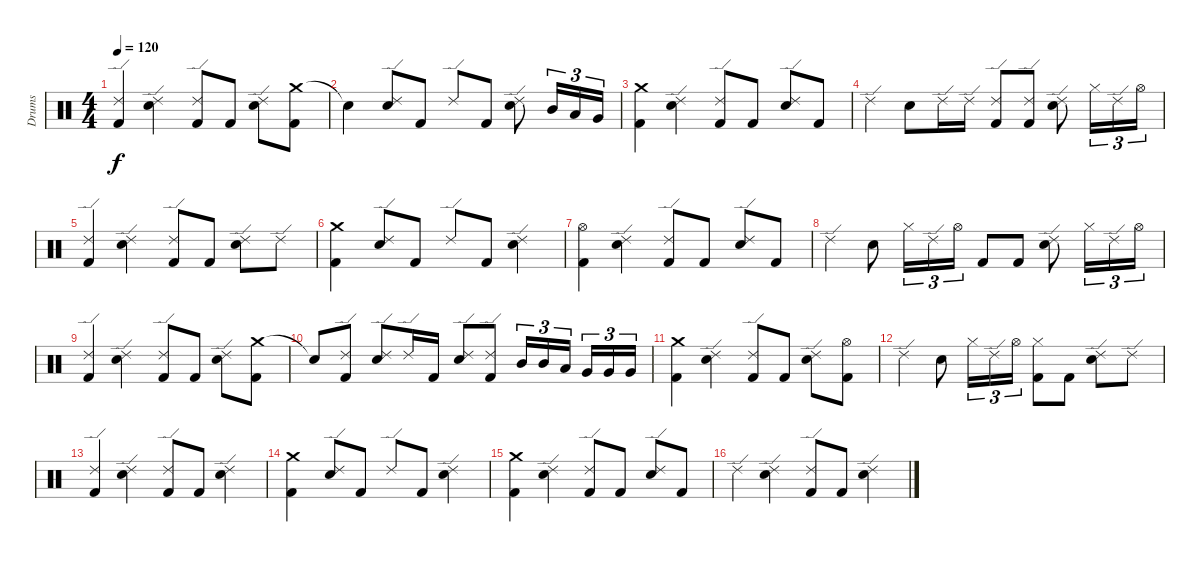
\track ("Drums" "Drums") {instrument percussion}
\staff {score}
\articulation defaults
\ts (4 4)
\tempo 120
\clef neutral
\ks c
("Ride (edge) 2" "Kick (hit) 2").4{dy f} ("Ride (edge) 2" "Snare (hit) 2").4 ("Ride (edge) 2" "Kick (hit) 2").8 "Kick (hit) 2".8 ("Ride (edge) 2" "Snare (hit) 2").8 ("Crash medium (hit)" "Kick (hit) 2").8 |
"Snare (hit)"{t}.4 ("Ride (edge) 2" "Snare (hit) 2").8 "Kick (hit) 2".8 "Ride (edge) 2".8 "Kick (hit) 2".8 ("Ride (edge) 2" "Snare (hit) 2").8 "Mid Tom (hit)".16{tu (3 2)} "Low Tom (hit)".16{tu (3 2)} "Very Low Tom (hit)".16{tu (3 2)} |
("Crash medium (hit)" "Kick (hit) 2").4 ("Ride (edge) 2" "Snare (hit) 2").4 ("Ride (edge) 2" "Kick (hit) 2").8 "Kick (hit) 2".8 ("Ride (edge) 2" "Snare (hit) 2").8 "Kick (hit) 2".8 |
"Ride (edge) 2".4 "Snare (hit) 2".8 "Ride (edge) 2".16 "Ride (edge) 2".16 ("Ride (edge) 2" "Kick (hit) 2").8 ("Ride (edge) 2" "Kick (hit) 2").8 ("Ride (edge) 2" "Snare (hit) 2").8 "Hi-Hat (closed)".16{tu (3 2)} "Ride (edge) 2".16{tu (3 2)} "Hi-Hat (open)".16{tu (3 2)} |
("Ride (edge) 2" "Kick (hit) 2").4 ("Ride (edge) 2" "Snare (hit) 2").4 ("Ride (edge) 2" "Kick (hit) 2").8 "Kick (hit) 2".8 ("Ride (edge) 2" "Snare (hit) 2").8 "Ride (edge) 2".8 |
("Crash medium (hit)" "Kick (hit) 2").4 ("Ride (edge) 2" "Snare (hit) 2").8 "Kick (hit) 2".8 "Ride (edge) 2".8 "Kick (hit) 2".8 ("Ride (edge) 2" "Snare (hit) 2").4 |
("Hi-Hat (open)" "Kick (hit) 2").4 ("Ride (edge) 2" "Snare (hit) 2").4 ("Ride (edge) 2" "Kick (hit) 2").8 "Kick (hit) 2".8 ("Ride (edge) 2" "Snare (hit) 2").8 "Kick (hit) 2".8 |
"Ride (edge) 2".4 "Snare (hit) 2".8 "Hi-Hat (closed)".16{tu (3 2)} "Ride (edge) 2".16{tu (3 2)} "Hi-Hat (open)".16{tu (3 2)} "Kick (hit) 2".8 "Kick (hit) 2".8 ("Ride (edge) 2" "Snare (hit) 2").8 "Hi-Hat (closed)".16{tu (3 2)} "Ride (edge) 2".16{tu (3 2)} "Hi-Hat (open)".16{tu (3 2)} |
("Ride (edge) 2" "Kick (hit) 2").4 ("Ride (edge) 2" "Snare (hit) 2").4 ("Ride (edge) 2" "Kick (hit) 2").8 "Kick (hit) 2".8 ("Ride (edge) 2" "Snare (hit) 2").8 ("Crash medium (hit)" "Kick (hit) 2").8 |
"Snare (hit)"{t}.8 ("Ride (edge) 2" "Kick (hit) 2").8 ("Ride (edge) 2" "Snare (hit) 2").8 "Ride (edge) 2".16 "Kick (hit) 2".16 ("Ride (edge) 2" "Snare (hit) 2").8 ("Ride (edge) 2" "Kick (hit) 2").8 "Mid Tom (hit)".16{tu (3 2)} "Mid Tom (hit)".16{tu (3 2)} "Low Tom (hit)".16{tu (3 2)} "Very Low Tom (hit)".16{tu (3 2)} "Very Low Tom (hit)".16{tu (3 2)} "Very Low Tom (hit)".16{tu (3 2)} |
("Crash medium (hit)" "Kick (hit) 2").4 ("Ride (edge) 2" "Snare (hit) 2").4 ("Ride (edge) 2" "Kick (hit) 2").8 "Kick (hit) 2".8 ("Ride (edge) 2" "Snare (hit) 2").8 ("Hi-Hat (open)" "Kick (hit) 2").8 |
"Ride (edge) 2".4 "Snare (hit) 2".8 "Hi-Hat (closed)".16{tu (3 2)} "Ride (edge) 2".16{tu (3 2)} "Hi-Hat (open)".16{tu (3 2)} ("Hi-Hat (closed)" "Kick (hit) 2").8 "Kick (hit) 2".8 ("Ride (edge) 2" "Snare (hit) 2").8 "Ride (edge) 2".8 |
("Ride (edge) 2" "Kick (hit) 2").4 ("Ride (edge) 2" "Snare (hit) 2").4 ("Ride (edge) 2" "Kick (hit) 2").8 "Kick (hit) 2".8 ("Ride (edge) 2" "Snare (hit) 2").4 |
("Crash medium (hit)" "Kick (hit) 2").4 ("Ride (edge) 2" "Snare (hit) 2").8 "Kick (hit) 2".8 "Ride (edge) 2".8 "Kick (hit) 2".8 ("Ride (edge) 2" "Snare (hit) 2").4 |
("Crash medium (hit)" "Kick (hit) 2").4 ("Ride (edge) 2" "Snare (hit) 2").4 ("Ride (edge) 2" "Kick (hit) 2").8 "Kick (hit) 2".8 ("Ride (edge) 2" "Snare (hit) 2").8 "Kick (hit) 2".8 |
"Ride (edge) 2".4 ("Ride (edge) 2" "Snare (hit) 2").4 ("Ride (edge) 2" "Kick (hit) 2").8 "Kick (hit) 2".8 ("Ride (edge) 2" "Snare (hit) 2").4
